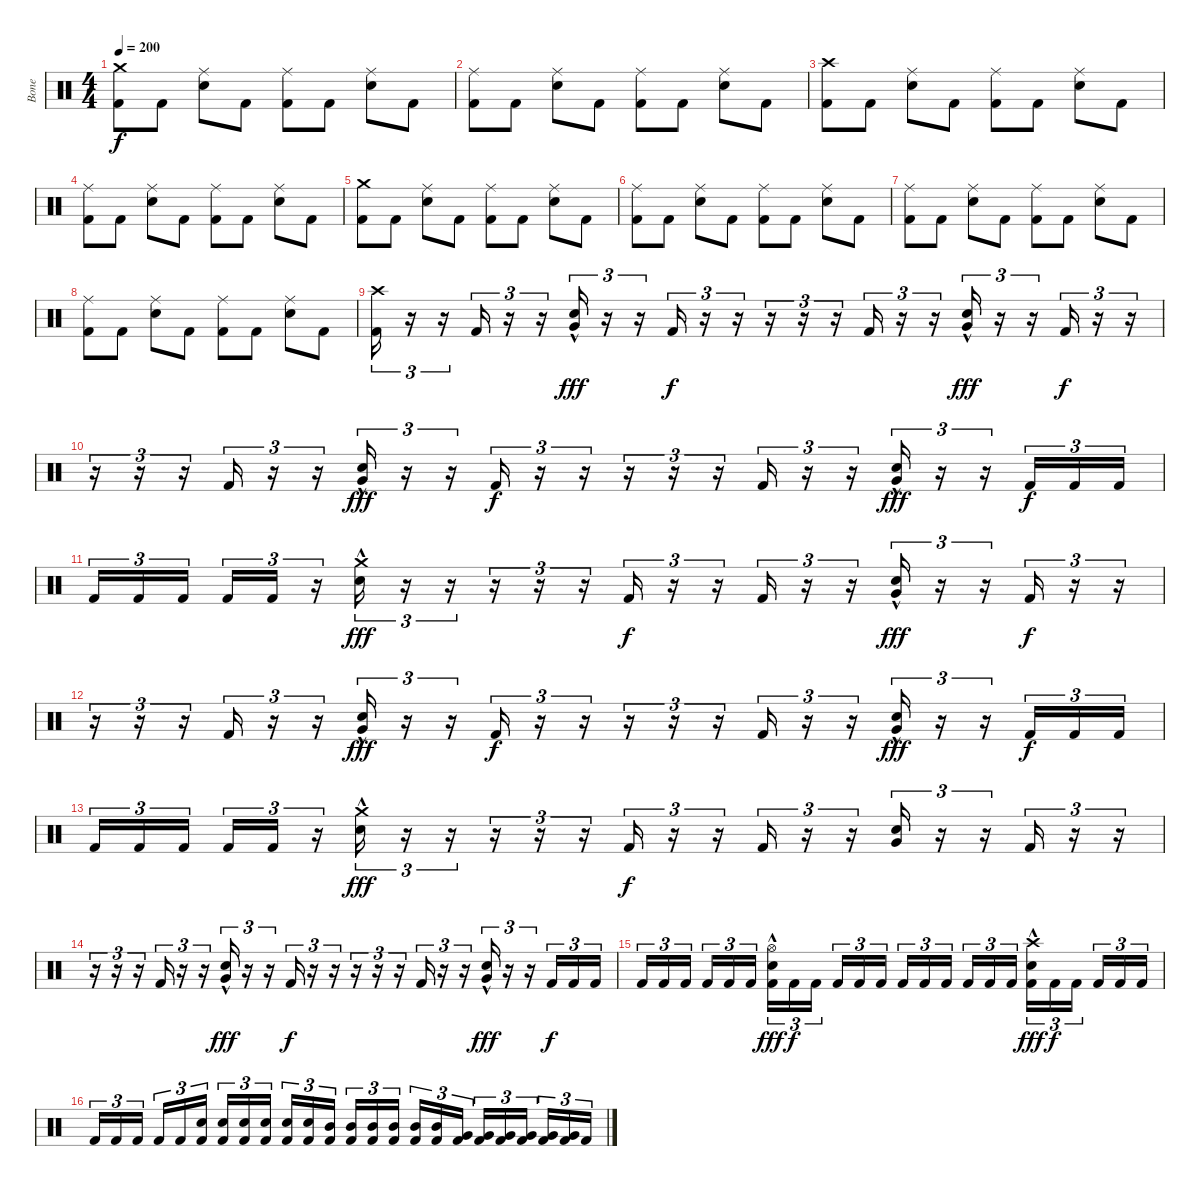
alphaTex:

\track ("Bone " "Bone ") {instrument percussion}
\staff {score}
\articulation defaults
\ts (4 4)
\tempo 200
\clef neutral
\ks c
("Crash medium (hit)" "Kick (hit) 2").8{dy f} "Kick (hit) 2".8 ("Ride (middle)" "Electric Snare (hit)").8 "Kick (hit) 2".8 ("Ride (middle)" "Kick (hit) 2").8 "Kick (hit) 2".8 ("Ride (middle)" "Electric Snare (hit)").8 "Kick (hit) 2".8 |
("Ride (middle)" "Kick (hit) 2").8 "Kick (hit) 2".8 ("Ride (middle)" "Electric Snare (hit)").8 "Kick (hit) 2".8 ("Ride (middle)" "Kick (hit) 2").8 "Kick (hit) 2".8 ("Ride (middle)" "Electric Snare (hit)").8 "Kick (hit) 2".8 |
("Crash high (hit)" "Kick (hit) 2").8 "Kick (hit) 2".8 ("Ride (middle)" "Electric Snare (hit)").8 "Kick (hit) 2".8 ("Ride (middle)" "Kick (hit) 2").8 "Kick (hit) 2".8 ("Ride (middle)" "Electric Snare (hit)").8 "Kick (hit) 2".8 |
("Ride (middle)" "Kick (hit) 2").8 "Kick (hit) 2".8 ("Ride (middle)" "Electric Snare (hit)").8 "Kick (hit) 2".8 ("Ride (middle)" "Kick (hit) 2").8 "Kick (hit) 2".8 ("Ride (middle)" "Electric Snare (hit)").8 "Kick (hit) 2".8 |
("Crash medium (hit)" "Kick (hit) 2").8 "Kick (hit) 2".8 ("Ride (middle)" "Electric Snare (hit)").8 "Kick (hit) 2".8 ("Ride (middle)" "Kick (hit) 2").8 "Kick (hit) 2".8 ("Ride (middle)" "Electric Snare (hit)").8 "Kick (hit) 2".8 |
("Ride (middle)" "Kick (hit) 2").8 "Kick (hit) 2".8 ("Ride (middle)" "Electric Snare (hit)").8 "Kick (hit) 2".8 ("Ride (middle)" "Kick (hit) 2").8 "Kick (hit) 2".8 ("Ride (middle)" "Electric Snare (hit)").8 "Kick (hit) 2".8 |
("Ride (middle)" "Kick (hit) 2").8 "Kick (hit) 2".8 ("Ride (middle)" "Electric Snare (hit)").8 "Kick (hit) 2".8 ("Ride (middle)" "Kick (hit) 2").8 "Kick (hit) 2".8 ("Ride (middle)" "Electric Snare (hit)").8 "Kick (hit) 2".8 |
("Ride (middle)" "Kick (hit) 2").8 "Kick (hit) 2".8 ("Ride (middle)" "Electric Snare (hit)").8 "Kick (hit) 2".8 ("Ride (middle)" "Kick (hit) 2").8 "Kick (hit) 2".8 ("Ride (middle)" "Electric Snare (hit)").8 "Kick (hit) 2".8 |
("Crash high (hit)" "Kick (hit) 2").16{tu (3 2)} r.16{tu (3 2)} r.16{tu (3 2)} "Kick (hit) 2".16{tu (3 2)} r.16{tu (3 2)} r.16{tu (3 2)} ("Very Low Tom (hit)"{hac} "Electric Snare (hit)"{hac}).16{tu (3 2) dy fff} r.16{tu (3 2)} r.16{tu (3 2)} "Kick (hit) 2".16{tu (3 2) dy f} r.16{tu (3 2)} r.16{tu (3 2)} r.16{tu (3 2)} r.16{tu (3 2)} r.16{tu (3 2)} "Kick (hit) 2".16{tu (3 2)} r.16{tu (3 2)} r.16{tu (3 2)} ("Very Low Tom (hit)"{hac} "Electric Snare (hit)"{hac}).16{tu (3 2) dy fff} r.16{tu (3 2)} r.16{tu (3 2)} "Kick (hit) 2".16{tu (3 2) dy f} r.16{tu (3 2)} r.16{tu (3 2)} |
r.16{tu (3 2)} r.16{tu (3 2)} r.16{tu (3 2)} "Kick (hit) 2".16{tu (3 2)} r.16{tu (3 2)} r.16{tu (3 2)} ("Very Low Tom (hit)"{hac} "Electric Snare (hit)"{hac}).16{tu (3 2) dy fff} r.16{tu (3 2)} r.16{tu (3 2)} "Kick (hit) 2".16{tu (3 2) dy f} r.16{tu (3 2)} r.16{tu (3 2)} r.16{tu (3 2)} r.16{tu (3 2)} r.16{tu (3 2)} "Kick (hit) 2".16{tu (3 2)} r.16{tu (3 2)} r.16{tu (3 2)} ("Very Low Tom (hit)"{hac} "Electric Snare (hit)"{hac}).16{tu (3 2) dy fff} r.16{tu (3 2)} r.16{tu (3 2)} "Kick (hit) 2".16{tu (3 2) dy f} "Kick (hit) 2".16{tu (3 2)} "Kick (hit) 2".16{tu (3 2)} |
"Kick (hit) 2".16{tu (3 2)} "Kick (hit) 2".16{tu (3 2)} "Kick (hit) 2".16{tu (3 2) beam splitsecondary} "Kick (hit) 2".16{tu (3 2)} "Kick (hit) 2".16{tu (3 2)} r.16{tu (3 2)} ("Electric Snare (hit)"{hac} "Crash medium (hit)"{hac}).16{tu (3 2) dy fff} r.16{tu (3 2)} r.16{tu (3 2)} r.16{tu (3 2)} r.16{tu (3 2)} r.16{tu (3 2)} "Kick (hit) 2".16{tu (3 2) dy f} r.16{tu (3 2)} r.16{tu (3 2)} "Kick (hit) 2".16{tu (3 2)} r.16{tu (3 2)} r.16{tu (3 2)} ("Very Low Tom (hit)"{hac} "Electric Snare (hit)"{hac}).16{tu (3 2) dy fff} r.16{tu (3 2)} r.16{tu (3 2)} "Kick (hit) 2".16{tu (3 2) dy f} r.16{tu (3 2)} r.16{tu (3 2)} |
r.16{tu (3 2)} r.16{tu (3 2)} r.16{tu (3 2)} "Kick (hit) 2".16{tu (3 2)} r.16{tu (3 2)} r.16{tu (3 2)} ("Electric Snare (hit)"{hac} "Very Low Tom (hit)"{hac}).16{tu (3 2) dy fff} r.16{tu (3 2)} r.16{tu (3 2)} "Kick (hit) 2".16{tu (3 2) dy f} r.16{tu (3 2)} r.16{tu (3 2)} r.16{tu (3 2)} r.16{tu (3 2)} r.16{tu (3 2)} "Kick (hit) 2".16{tu (3 2)} r.16{tu (3 2)} r.16{tu (3 2)} ("Electric Snare (hit)"{hac} "Very Low Tom (hit)"{hac}).16{tu (3 2) dy fff} r.16{tu (3 2)} r.16{tu (3 2)} "Kick (hit) 2".16{tu (3 2) dy f} "Kick (hit) 2".16{tu (3 2)} "Kick (hit) 2".16{tu (3 2)} |
"Kick (hit) 2".16{tu (3 2)} "Kick (hit) 2".16{tu (3 2)} "Kick (hit) 2".16{tu (3 2) beam splitsecondary} "Kick (hit) 2".16{tu (3 2)} "Kick (hit) 2".16{tu (3 2)} r.16{tu (3 2)} ("Electric Snare (hit)"{hac} "Crash medium (hit)"{hac}).16{tu (3 2) dy fff} r.16{tu (3 2)} r.16{tu (3 2)} r.16{tu (3 2)} r.16{tu (3 2)} r.16{tu (3 2)} "Kick (hit) 2".16{tu (3 2) dy f} r.16{tu (3 2)} r.16{tu (3 2)} "Kick (hit) 2".16{tu (3 2)} r.16{tu (3 2)} r.16{tu (3 2)} ("Very Low Tom (hit)" "Electric Snare (hit)").16{tu (3 2)} r.16{tu (3 2)} r.16{tu (3 2)} "Kick (hit) 2".16{tu (3 2)} r.16{tu (3 2)} r.16{tu (3 2)} |
r.16{tu (3 2)} r.16{tu (3 2)} r.16{tu (3 2)} "Kick (hit) 2".16{tu (3 2)} r.16{tu (3 2)} r.16{tu (3 2)} ("Electric Snare (hit)"{hac} "Very Low Tom (hit)"{hac}).16{tu (3 2) dy fff} r.16{tu (3 2)} r.16{tu (3 2)} "Kick (hit) 2".16{tu (3 2) dy f} r.16{tu (3 2)} r.16{tu (3 2)} r.16{tu (3 2)} r.16{tu (3 2)} r.16{tu (3 2)} "Kick (hit) 2".16{tu (3 2)} r.16{tu (3 2)} r.16{tu (3 2)} ("Electric Snare (hit)"{hac} "Very Low Tom (hit)"{hac}).16{tu (3 2) dy fff} r.16{tu (3 2)} r.16{tu (3 2)} "Kick (hit) 2".16{tu (3 2) dy f} "Kick (hit) 2".16{tu (3 2)} "Kick (hit) 2".16{tu (3 2)} |
"Kick (hit) 2".16{tu (3 2)} "Kick (hit) 2".16{tu (3 2)} "Kick (hit) 2".16{tu (3 2) beam splitsecondary} "Kick (hit) 2".16{tu (3 2)} "Kick (hit) 2".16{tu (3 2)} "Kick (hit) 2".16{tu (3 2)} ("Hi-Hat (open)"{hac} "Electric Snare (hit)"{hac} "Kick (hit) 2"{hac}).16{tu (3 2) dy fff} "Kick (hit) 2".16{tu (3 2) dy f} "Kick (hit) 2".16{tu (3 2) beam splitsecondary} "Kick (hit) 2".16{tu (3 2)} "Kick (hit) 2".16{tu (3 2)} "Kick (hit) 2".16{tu (3 2)} "Kick (hit) 2".16{tu (3 2)} "Kick (hit) 2".16{tu (3 2)} "Kick (hit) 2".16{tu (3 2) beam splitsecondary} "Kick (hit) 2".16{tu (3 2)} "Kick (hit) 2".16{tu (3 2)} "Kick (hit) 2".16{tu (3 2)} ("Crash high (hit)"{hac} "Electric Snare (hit)"{hac} "Kick (hit) 2"{hac}).16{tu (3 2) dy fff} "Kick (hit) 2".16{tu (3 2) dy f} "Kick (hit) 2".16{tu (3 2) beam splitsecondary} "Kick (hit) 2".16{tu (3 2)} "Kick (hit) 2".16{tu (3 2)} "Kick (hit) 2".16{tu (3 2)} |
"Kick (hit) 2".16{tu (3 2)} "Kick (hit) 2".16{tu (3 2)} "Kick (hit) 2".16{tu (3 2) beam splitsecondary} "Kick (hit) 2".16{tu (3 2)} "Kick (hit) 2".16{tu (3 2)} ("Electric Snare (hit)" "Kick (hit) 2").16{tu (3 2)} ("Electric Snare (hit)" "Kick (hit) 2").16{tu (3 2)} ("Electric Snare (hit)" "Kick (hit) 2").16{tu (3 2)} ("Electric Snare (hit)" "Kick (hit) 2").16{tu (3 2) beam splitsecondary} ("Electric Snare (hit)" "Kick (hit) 2").16{tu (3 2)} ("Electric Snare (hit)" "Kick (hit) 2").16{tu (3 2)} ("Mid Tom (hit)" "Kick (hit) 2").16{tu (3 2)} ("Mid Tom (hit)" "Kick (hit) 2").16{tu (3 2)} ("Mid Tom (hit)" "Kick (hit) 2").16{tu (3 2)} ("Mid Tom (hit)" "Kick (hit) 2").16{tu (3 2) beam splitsecondary} ("Mid Tom (hit)" "Kick (hit) 2").16{tu (3 2)} ("Mid Tom (hit)" "Kick (hit) 2").16{tu (3 2)} ("Very Low Tom (hit)" "Kick (hit) 2").16{tu (3 2)} ("Very Low Tom (hit)" "Kick (hit) 2").16{tu (3 2)} ("Very Low Tom (hit)" "Kick (hit) 2").16{tu (3 2)} ("Very Low Tom (hit)" "Kick (hit) 2").16{tu (3 2) beam splitsecondary} ("Very Low Tom (hit)" "Kick (hit) 2").16{tu (3 2)} ("Very Low Tom (hit)" "Kick (hit) 2").16{tu (3 2)} "Kick (hit) 2".16{tu (3 2)}
